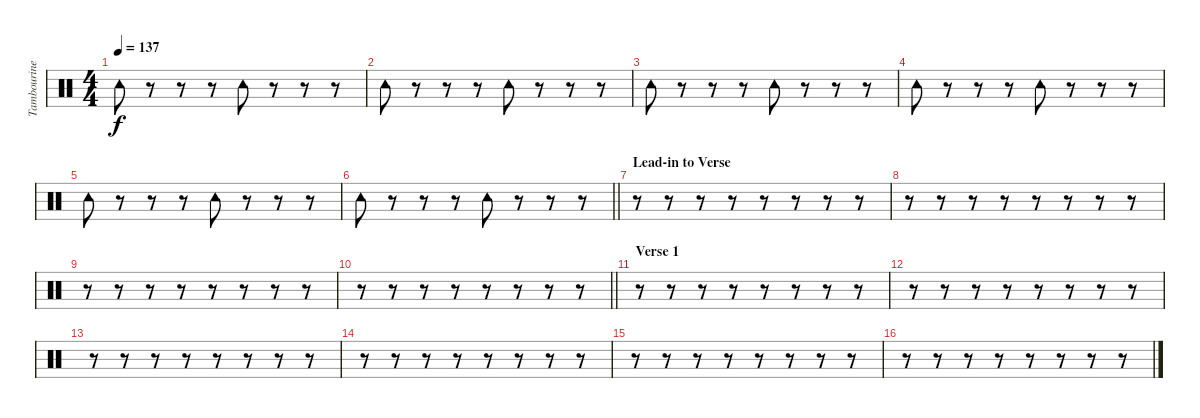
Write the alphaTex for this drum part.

\track ("Tambourine" "Tambourine") {instrument percussion}
\staff {score}
\articulation defaults
\ts (4 4)
\tempo 137
\clef neutral
\ks c "Tambourine (hit)".8{dy f}
r.8 r.8 r.8 "Tambourine (hit)".8 r.8 r.8 r.8 |
"Tambourine (hit)".8 r.8 r.8 r.8 "Tambourine (hit)".8 r.8 r.8 r.8 |
"Tambourine (hit)".8 r.8 r.8 r.8 "Tambourine (hit)".8 r.8 r.8 r.8 |
"Tambourine (hit)".8 r.8 r.8 r.8 "Tambourine (hit)".8 r.8 r.8 r.8 |
"Tambourine (hit)".8 r.8 r.8 r.8 "Tambourine (hit)".8 r.8 r.8 r.8 |
\barLineRight lightlight "Tambourine (hit)".8
r.8 r.8 r.8 "Tambourine (hit)".8 r.8 r.8 r.8 |
\section ("" "Lead-in to Verse")
r.8 r.8 r.8 r.8 r.8 r.8 r.8 r.8 |
r.8 r.8 r.8 r.8 r.8 r.8 r.8 r.8 |
r.8 r.8 r.8 r.8 r.8 r.8 r.8 r.8 |
\barLineRight lightlight
r.8 r.8 r.8 r.8 r.8 r.8 r.8 r.8 |
\section ("" "Verse 1")
r.8 r.8 r.8 r.8 r.8 r.8 r.8 r.8 |
r.8 r.8 r.8 r.8 r.8 r.8 r.8 r.8 |
r.8 r.8 r.8 r.8 r.8 r.8 r.8 r.8 |
r.8 r.8 r.8 r.8 r.8 r.8 r.8 r.8 |
r.8 r.8 r.8 r.8 r.8 r.8 r.8 r.8 |
r.8 r.8 r.8 r.8 r.8 r.8 r.8 r.8
